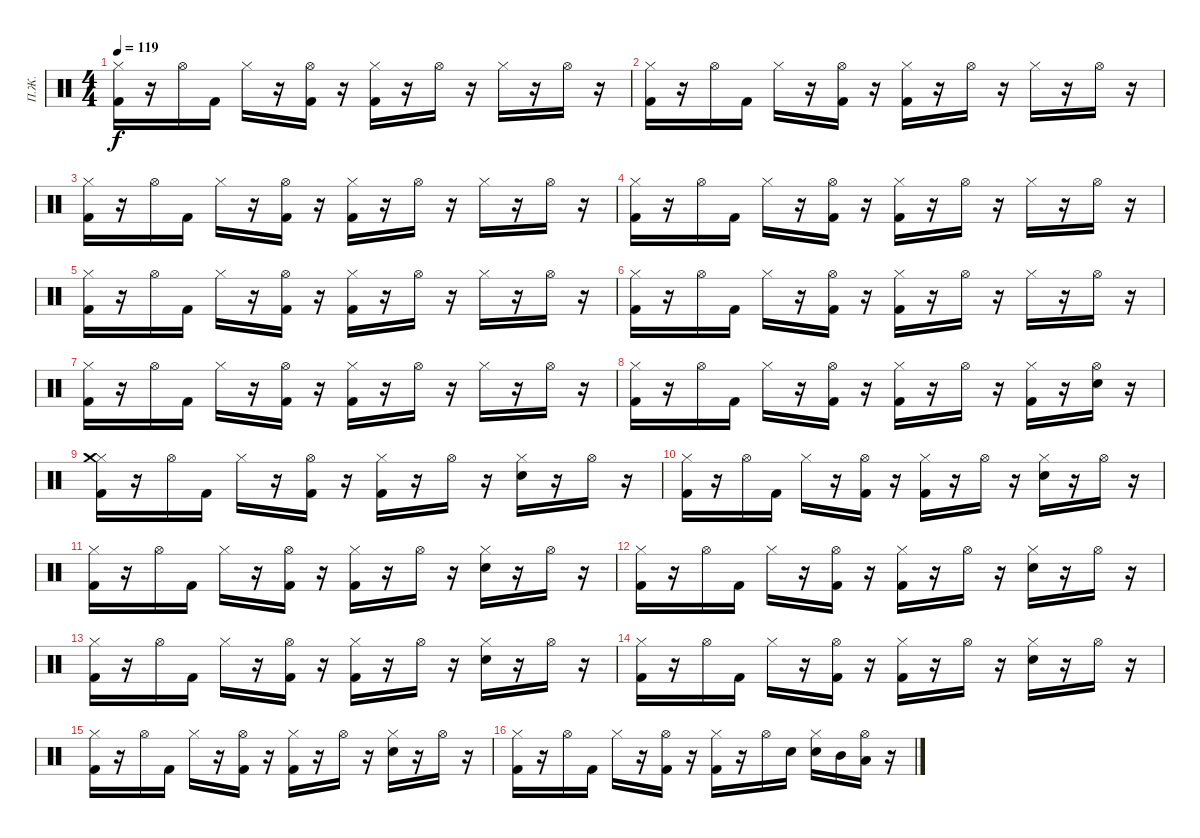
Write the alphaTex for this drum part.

\track ("П.Ж." "П.Ж.") {instrument percussion}
\staff {score}
\articulation defaults
\ts (4 4)
\tempo 119
\clef neutral
\ks c
("Hi-Hat (closed)" "Kick (hit) 2").16{dy f} r.16 "Hi-Hat (open)".16 "Kick (hit) 2".16 "Hi-Hat (closed)".16 r.16 ("Kick (hit) 2" "Hi-Hat (open)").16 r.16 ("Hi-Hat (closed)" "Kick (hit) 2").16 r.16 "Hi-Hat (open)".16 r.16 "Hi-Hat (closed)".16 r.16 "Hi-Hat (open)".16 r.16 |
("Kick (hit) 2" "Hi-Hat (closed)").16 r.16 "Hi-Hat (open)".16 "Kick (hit) 2".16 "Hi-Hat (closed)".16 r.16 ("Hi-Hat (open)" "Kick (hit) 2").16 r.16 ("Kick (hit) 2" "Hi-Hat (closed)").16 r.16 "Hi-Hat (open)".16 r.16 "Hi-Hat (closed)".16 r.16 "Hi-Hat (open)".16 r.16 |
("Kick (hit) 2" "Hi-Hat (closed)").16 r.16 "Hi-Hat (open)".16 "Kick (hit) 2".16 "Hi-Hat (closed)".16 r.16 ("Hi-Hat (open)" "Kick (hit) 2").16 r.16 ("Kick (hit) 2" "Hi-Hat (closed)").16 r.16 "Hi-Hat (open)".16 r.16 "Hi-Hat (closed)".16 r.16 "Hi-Hat (open)".16 r.16 |
("Hi-Hat (closed)" "Kick (hit) 2").16 r.16 "Hi-Hat (open)".16 "Kick (hit) 2".16 "Hi-Hat (closed)".16 r.16 ("Hi-Hat (open)" "Kick (hit) 2").16 r.16 ("Hi-Hat (closed)" "Kick (hit) 2").16 r.16 "Hi-Hat (open)".16 r.16 "Hi-Hat (closed)".16 r.16 "Hi-Hat (open)".16 r.16 |
("Kick (hit) 2" "Hi-Hat (closed)").16 r.16 "Hi-Hat (open)".16 "Kick (hit) 2".16 "Hi-Hat (closed)".16 r.16 ("Kick (hit) 2" "Hi-Hat (open)").16 r.16 ("Kick (hit) 2" "Hi-Hat (closed)").16 r.16 "Hi-Hat (open)".16 r.16 "Hi-Hat (closed)".16 r.16 "Hi-Hat (open)".16 r.16 |
("Hi-Hat (closed)" "Kick (hit) 2").16 r.16 "Hi-Hat (open)".16 "Kick (hit) 2".16 "Hi-Hat (closed)".16 r.16 ("Kick (hit) 2" "Hi-Hat (open)").16 r.16 ("Kick (hit) 2" "Hi-Hat (closed)").16 r.16 "Hi-Hat (open)".16 r.16 "Hi-Hat (closed)".16 r.16 "Hi-Hat (open)".16 r.16 |
("Hi-Hat (closed)" "Kick (hit) 2").16 r.16 "Hi-Hat (open)".16 "Kick (hit) 2".16 "Hi-Hat (closed)".16 r.16 ("Hi-Hat (open)" "Kick (hit) 2").16 r.16 ("Hi-Hat (closed)" "Kick (hit) 2").16 r.16 "Hi-Hat (open)".16 r.16 "Hi-Hat (closed)".16 r.16 "Hi-Hat (open)".16 r.16 |
("Kick (hit) 2" "Hi-Hat (closed)").16 r.16 "Hi-Hat (open)".16 "Kick (hit) 2".16 "Hi-Hat (closed)".16 r.16 ("Kick (hit) 2" "Hi-Hat (open)").16 r.16 ("Hi-Hat (closed)" "Kick (hit) 2").16 r.16 "Hi-Hat (open)".16 r.16 ("Hi-Hat (closed)" "Kick (hit) 2").16 r.16 ("Hi-Hat (open)" "Electric Snare (hit)").16 r.16 |
("Hi-Hat (closed)" "Kick (hit) 2" "Crash medium (hit)").16 r.16 "Hi-Hat (open)".16 "Kick (hit) 2".16 "Hi-Hat (closed)".16 r.16 ("Hi-Hat (open)" "Kick (hit) 2").16 r.16 ("Hi-Hat (closed)" "Kick (hit) 2").16 r.16 "Hi-Hat (open)".16 r.16 ("Hi-Hat (closed)" "Electric Snare (hit)").16 r.16 "Hi-Hat (open)".16 r.16 |
("Hi-Hat (closed)" "Kick (hit) 2").16 r.16 "Hi-Hat (open)".16 "Kick (hit) 2".16 "Hi-Hat (closed)".16 r.16 ("Hi-Hat (open)" "Kick (hit) 2").16 r.16 ("Hi-Hat (closed)" "Kick (hit) 2").16 r.16 "Hi-Hat (open)".16 r.16 ("Hi-Hat (closed)" "Electric Snare (hit)").16 r.16 "Hi-Hat (open)".16 r.16 |
("Hi-Hat (closed)" "Kick (hit) 2").16 r.16 "Hi-Hat (open)".16 "Kick (hit) 2".16 "Hi-Hat (closed)".16 r.16 ("Hi-Hat (open)" "Kick (hit) 2").16 r.16 ("Hi-Hat (closed)" "Kick (hit) 2").16 r.16 "Hi-Hat (open)".16 r.16 ("Hi-Hat (closed)" "Electric Snare (hit)").16 r.16 "Hi-Hat (open)".16 r.16 |
("Hi-Hat (closed)" "Kick (hit) 2").16 r.16 "Hi-Hat (open)".16 "Kick (hit) 2".16 "Hi-Hat (closed)".16 r.16 ("Hi-Hat (open)" "Kick (hit) 2").16 r.16 ("Hi-Hat (closed)" "Kick (hit) 2").16 r.16 "Hi-Hat (open)".16 r.16 ("Hi-Hat (closed)" "Electric Snare (hit)").16 r.16 "Hi-Hat (open)".16 r.16 |
("Hi-Hat (closed)" "Kick (hit) 2").16 r.16 "Hi-Hat (open)".16 "Kick (hit) 2".16 "Hi-Hat (closed)".16 r.16 ("Hi-Hat (open)" "Kick (hit) 2").16 r.16 ("Hi-Hat (closed)" "Kick (hit) 2").16 r.16 "Hi-Hat (open)".16 r.16 ("Hi-Hat (closed)" "Electric Snare (hit)").16 r.16 "Hi-Hat (open)".16 r.16 |
("Hi-Hat (closed)" "Kick (hit) 2").16 r.16 "Hi-Hat (open)".16 "Kick (hit) 2".16 "Hi-Hat (closed)".16 r.16 ("Hi-Hat (open)" "Kick (hit) 2").16 r.16 ("Hi-Hat (closed)" "Kick (hit) 2").16 r.16 "Hi-Hat (open)".16 r.16 ("Hi-Hat (closed)" "Electric Snare (hit)").16 r.16 "Hi-Hat (open)".16 r.16 |
("Hi-Hat (closed)" "Kick (hit) 2").16 r.16 "Hi-Hat (open)".16 "Kick (hit) 2".16 "Hi-Hat (closed)".16 r.16 ("Hi-Hat (open)" "Kick (hit) 2").16 r.16 ("Hi-Hat (closed)" "Kick (hit) 2").16 r.16 "Hi-Hat (open)".16 r.16 ("Hi-Hat (closed)" "Electric Snare (hit)").16 r.16 "Hi-Hat (open)".16 r.16 |
("Hi-Hat (closed)" "Kick (hit) 2").16 r.16 "Hi-Hat (open)".16 "Kick (hit) 2".16 "Hi-Hat (closed)".16 r.16 ("Hi-Hat (open)" "Kick (hit) 2").16 r.16 ("Hi-Hat (closed)" "Kick (hit) 2").16 r.16 "Hi-Hat (open)".16 "Electric Snare (hit)".16 ("Hi-Hat (closed)" "Electric Snare (hit)").16 "Mid Tom (hit)".16 ("Hi-Hat (open)" "Low Tom (hit)").16 r.16
